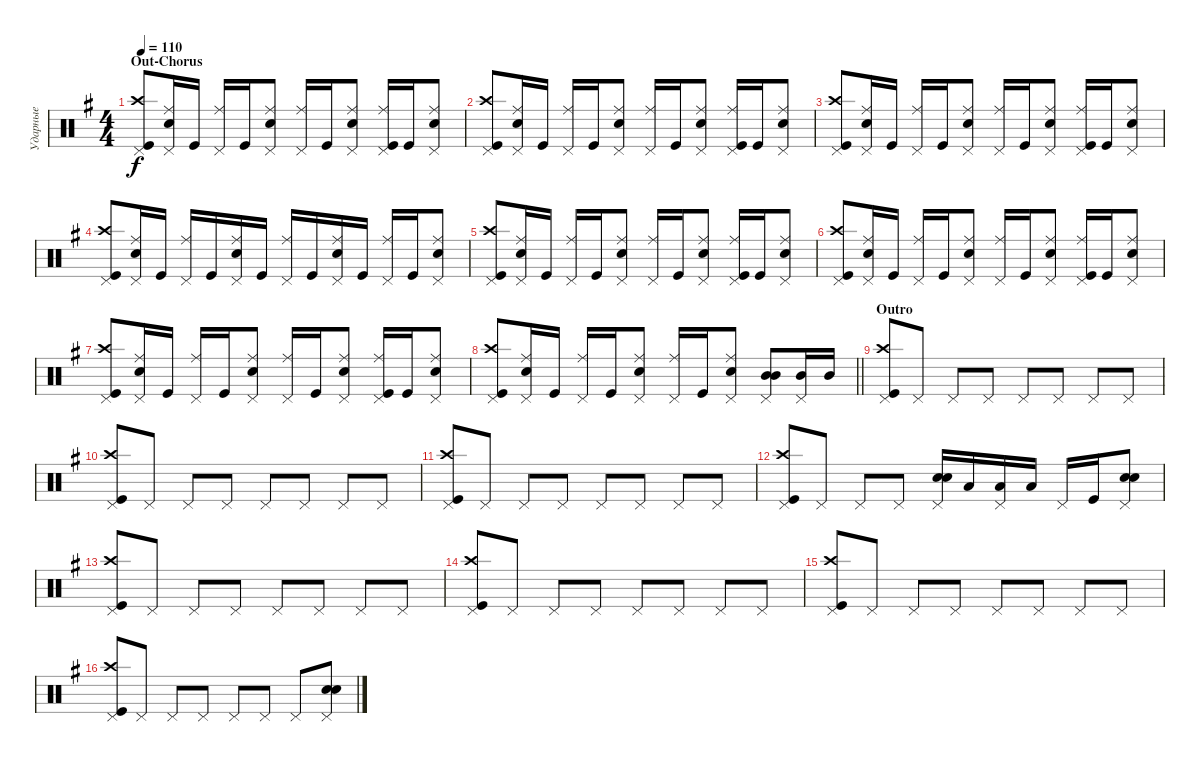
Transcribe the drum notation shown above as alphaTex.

\track ("Ударные" "Ударные") {instrument percussion}
\staff {score}
\articulation defaults
\ts (4 4)
\section ("" "Out-Chorus")
\tempo 110
\clef neutral
\ks eminor
("Kick (hit)" "Crash high (hit)" "Pedal Hi-Hat (hit)").8{dy f} ("Snare (hit) 2" "Ride (middle)" "Pedal Hi-Hat (hit)").16 "Kick (hit)".16 ("Ride (middle)" "Pedal Hi-Hat (hit)").16 "Kick (hit)".16 ("Snare (hit) 2" "Ride (middle)" "Pedal Hi-Hat (hit)").8 ("Ride (middle)" "Pedal Hi-Hat (hit)").16 "Kick (hit)".16 ("Snare (hit) 2" "Ride (middle)" "Pedal Hi-Hat (hit)").8 ("Kick (hit)" "Ride (middle)" "Pedal Hi-Hat (hit)").16 "Kick (hit)".16 ("Snare (hit) 2" "Ride (middle)" "Pedal Hi-Hat (hit)").8 |
("Kick (hit)" "Crash high (hit)" "Pedal Hi-Hat (hit)").8 ("Snare (hit) 2" "Ride (middle)" "Pedal Hi-Hat (hit)").16 "Kick (hit)".16 ("Ride (middle)" "Pedal Hi-Hat (hit)").16 "Kick (hit)".16 ("Snare (hit) 2" "Ride (middle)" "Pedal Hi-Hat (hit)").8 ("Ride (middle)" "Pedal Hi-Hat (hit)").16 "Kick (hit)".16 ("Snare (hit) 2" "Ride (middle)" "Pedal Hi-Hat (hit)").8 ("Kick (hit)" "Ride (middle)" "Pedal Hi-Hat (hit)").16 "Kick (hit)".16 ("Snare (hit) 2" "Ride (middle)" "Pedal Hi-Hat (hit)").8 |
("Kick (hit)" "Crash high (hit)" "Pedal Hi-Hat (hit)").8 ("Snare (hit) 2" "Ride (middle)" "Pedal Hi-Hat (hit)").16 "Kick (hit)".16 ("Ride (middle)" "Pedal Hi-Hat (hit)").16 "Kick (hit)".16 ("Snare (hit) 2" "Ride (middle)" "Pedal Hi-Hat (hit)").8 ("Ride (middle)" "Pedal Hi-Hat (hit)").16 "Kick (hit)".16 ("Snare (hit) 2" "Ride (middle)" "Pedal Hi-Hat (hit)").8 ("Kick (hit)" "Ride (middle)" "Pedal Hi-Hat (hit)").16 "Kick (hit)".16 ("Snare (hit) 2" "Ride (middle)" "Pedal Hi-Hat (hit)").8 |
("Kick (hit)" "Crash high (hit)" "Pedal Hi-Hat (hit)").8 ("Snare (hit) 2" "Ride (middle)" "Pedal Hi-Hat (hit)").16 "Kick (hit)".16 ("Ride (middle)" "Pedal Hi-Hat (hit)").16 "Kick (hit)".16 ("Snare (hit) 2" "Ride (middle)" "Pedal Hi-Hat (hit)").16 "Kick (hit)".16 ("Ride (middle)" "Pedal Hi-Hat (hit)").16 "Kick (hit)".16 ("Snare (hit) 2" "Ride (middle)" "Pedal Hi-Hat (hit)").16 "Kick (hit)".16 ("Pedal Hi-Hat (hit)" "Ride (middle)").16 "Kick (hit)".16 ("Snare (hit) 2" "Ride (middle)" "Pedal Hi-Hat (hit)").8 |
("Kick (hit)" "Crash high (hit)" "Pedal Hi-Hat (hit)").8 ("Snare (hit) 2" "Ride (middle)" "Pedal Hi-Hat (hit)").16 "Kick (hit)".16 ("Ride (middle)" "Pedal Hi-Hat (hit)").16 "Kick (hit)".16 ("Snare (hit) 2" "Ride (middle)" "Pedal Hi-Hat (hit)").8 ("Ride (middle)" "Pedal Hi-Hat (hit)").16 "Kick (hit)".16 ("Snare (hit) 2" "Ride (middle)" "Pedal Hi-Hat (hit)").8 ("Kick (hit)" "Ride (middle)" "Pedal Hi-Hat (hit)").16 "Kick (hit)".16 ("Snare (hit) 2" "Ride (middle)" "Pedal Hi-Hat (hit)").8 |
("Kick (hit)" "Crash high (hit)" "Pedal Hi-Hat (hit)").8 ("Snare (hit) 2" "Ride (middle)" "Pedal Hi-Hat (hit)").16 "Kick (hit)".16 ("Ride (middle)" "Pedal Hi-Hat (hit)").16 "Kick (hit)".16 ("Snare (hit) 2" "Ride (middle)" "Pedal Hi-Hat (hit)").8 ("Ride (middle)" "Pedal Hi-Hat (hit)").16 "Kick (hit)".16 ("Snare (hit) 2" "Ride (middle)" "Pedal Hi-Hat (hit)").8 ("Kick (hit)" "Ride (middle)" "Pedal Hi-Hat (hit)").16 "Kick (hit)".16 ("Snare (hit) 2" "Ride (middle)" "Pedal Hi-Hat (hit)").8 |
("Kick (hit)" "Crash high (hit)" "Pedal Hi-Hat (hit)").8 ("Snare (hit) 2" "Ride (middle)" "Pedal Hi-Hat (hit)").16 "Kick (hit)".16 ("Ride (middle)" "Pedal Hi-Hat (hit)").16 "Kick (hit)".16 ("Snare (hit) 2" "Ride (middle)" "Pedal Hi-Hat (hit)").8 ("Ride (middle)" "Pedal Hi-Hat (hit)").16 "Kick (hit)".16 ("Snare (hit) 2" "Ride (middle)" "Pedal Hi-Hat (hit)").8 ("Kick (hit)" "Ride (middle)" "Pedal Hi-Hat (hit)").16 "Kick (hit)".16 ("Snare (hit) 2" "Ride (middle)" "Pedal Hi-Hat (hit)").8 |
\barLineRight lightlight
("Kick (hit)" "Crash high (hit)" "Pedal Hi-Hat (hit)").8 ("Snare (hit) 2" "Ride (middle)" "Pedal Hi-Hat (hit)").16 "Kick (hit)".16 ("Ride (middle)" "Pedal Hi-Hat (hit)").16 "Kick (hit)".16 ("Snare (hit) 2" "Ride (middle)" "Pedal Hi-Hat (hit)").8 ("Ride (middle)" "Pedal Hi-Hat (hit)").16 "Kick (hit)".16 ("Snare (hit) 2" "Ride (middle)" "Pedal Hi-Hat (hit)").8 ("Mid Tom (hit)" "Mid Tom (hit)" "Pedal Hi-Hat (hit)").8{bd 120} ("Mid Tom (hit)" "Pedal Hi-Hat (hit)").16 "Mid Tom (hit)".16 |
\section ("" "Outro")
("Kick (hit)" "Crash high (hit)" "Pedal Hi-Hat (hit)").8 "Pedal Hi-Hat (hit)".8 "Pedal Hi-Hat (hit)".8 "Pedal Hi-Hat (hit)".8 "Pedal Hi-Hat (hit)".8 "Pedal Hi-Hat (hit)".8 "Pedal Hi-Hat (hit)".8 "Pedal Hi-Hat (hit)".8 |
("Kick (hit)" "Crash high (hit)" "Pedal Hi-Hat (hit)").8 "Pedal Hi-Hat (hit)".8 "Pedal Hi-Hat (hit)".8 "Pedal Hi-Hat (hit)".8 "Pedal Hi-Hat (hit)".8 "Pedal Hi-Hat (hit)".8 "Pedal Hi-Hat (hit)".8 "Pedal Hi-Hat (hit)".8 |
("Kick (hit)" "Crash high (hit)" "Pedal Hi-Hat (hit)").8 "Pedal Hi-Hat (hit)".8 "Pedal Hi-Hat (hit)".8 "Pedal Hi-Hat (hit)".8 "Pedal Hi-Hat (hit)".8 "Pedal Hi-Hat (hit)".8 "Pedal Hi-Hat (hit)".8 "Pedal Hi-Hat (hit)".8 |
("Kick (hit)" "Crash high (hit)" "Pedal Hi-Hat (hit)").8 "Pedal Hi-Hat (hit)".8 "Pedal Hi-Hat (hit)".8 "Pedal Hi-Hat (hit)".8 ("Pedal Hi-Hat (hit)" "Snare (hit) 2" "Snare (hit) 2").16{bd 120} "Low Tom (hit)".16 ("Pedal Hi-Hat (hit)" "Low Tom (hit)").16 "Low Tom (hit)".16 "Pedal Hi-Hat (hit)".16 "Kick (hit)".16 ("Pedal Hi-Hat (hit)" "Snare (hit) 2" "Snare (hit) 2").8{bd 120} |
("Kick (hit)" "Crash high (hit)" "Pedal Hi-Hat (hit)").8 "Pedal Hi-Hat (hit)".8 "Pedal Hi-Hat (hit)".8 "Pedal Hi-Hat (hit)".8 "Pedal Hi-Hat (hit)".8 "Pedal Hi-Hat (hit)".8 "Pedal Hi-Hat (hit)".8 "Pedal Hi-Hat (hit)".8 |
("Kick (hit)" "Crash high (hit)" "Pedal Hi-Hat (hit)").8 "Pedal Hi-Hat (hit)".8 "Pedal Hi-Hat (hit)".8 "Pedal Hi-Hat (hit)".8 "Pedal Hi-Hat (hit)".8 "Pedal Hi-Hat (hit)".8 "Pedal Hi-Hat (hit)".8 "Pedal Hi-Hat (hit)".8 |
("Kick (hit)" "Crash high (hit)" "Pedal Hi-Hat (hit)").8 "Pedal Hi-Hat (hit)".8 "Pedal Hi-Hat (hit)".8 "Pedal Hi-Hat (hit)".8 "Pedal Hi-Hat (hit)".8 "Pedal Hi-Hat (hit)".8 "Pedal Hi-Hat (hit)".8 "Pedal Hi-Hat (hit)".8 |
("Kick (hit)" "Crash high (hit)" "Pedal Hi-Hat (hit)").8 "Pedal Hi-Hat (hit)".8 "Pedal Hi-Hat (hit)".8 "Pedal Hi-Hat (hit)".8 "Pedal Hi-Hat (hit)".8 "Pedal Hi-Hat (hit)".8 "Pedal Hi-Hat (hit)".8 ("Pedal Hi-Hat (hit)" "Snare (hit) 2" "Snare (hit) 2").8{bd 120}
